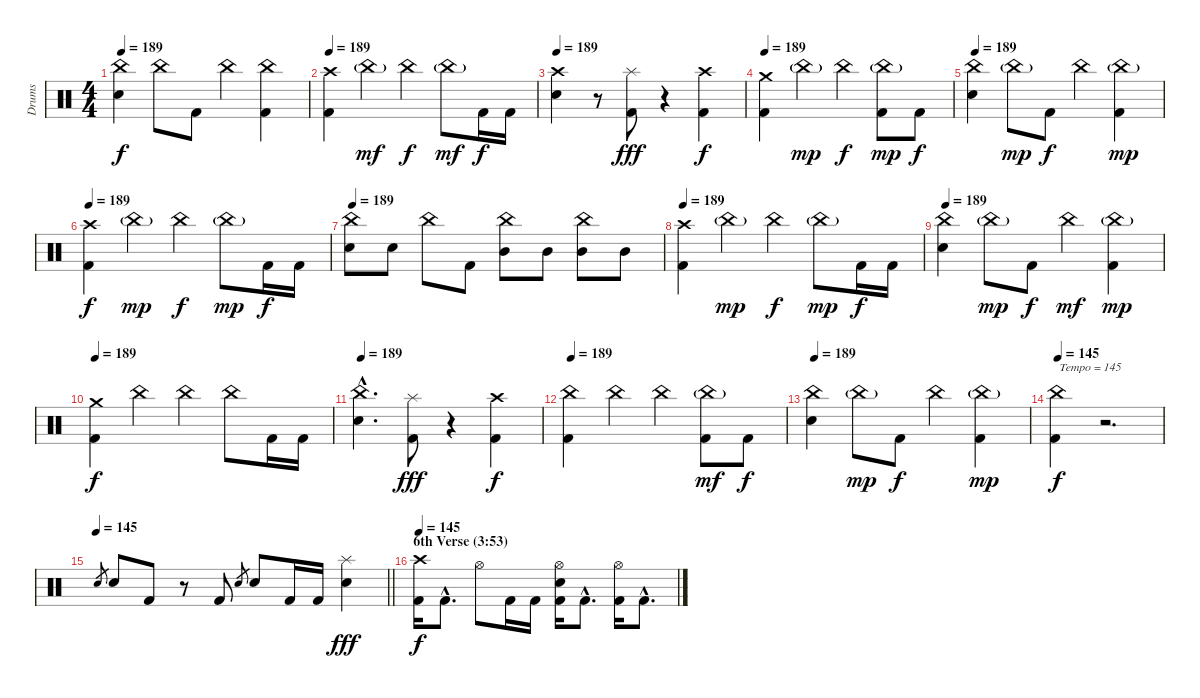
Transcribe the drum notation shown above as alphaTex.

\track ("Drums" "Drums") {instrument percussion}
\staff {score}
\articulation defaults
\ts (4 4)
\tempo 189
\clef neutral
\ks c
("China (hit)" "Snare (hit) 2").4{dy f} "China (hit)".8 "Kick (hit) 2".8 "China (hit)".4 ("China (hit)" "Kick (hit) 2").4 |
\tempo 189
("Crash high (hit)" "Kick (hit) 2").4 "China (hit)"{g}.4{dy mf} "China (hit)".4{dy f} "China (hit)"{g}.8{dy mf} "Kick (hit) 2".16{dy f} "Kick (hit) 2".16 |
\tempo 189
("Crash high (hit)" "Snare (hit) 2").4 r.8 ("Splash (hit)" "Kick (hit) 2").8{dy fff} r.4 ("Crash high (hit)" "Kick (hit) 2").4{dy f} |
\tempo 189
("Crash medium (hit)" "Kick (hit) 2").4 "China (hit)"{g}.4{dy mp} "China (hit)".4{dy f} ("China (hit)"{g} "Kick (hit) 2").8{dy mp} "Kick (hit) 2".8{dy f} |
\tempo 189
("China (hit)" "Snare (hit) 2").4 "China (hit)"{g}.8{dy mp} "Kick (hit) 2".8{dy f} "China (hit)".4 ("China (hit)"{g} "Kick (hit) 2").4{dy mp} |
\tempo 189
("Crash high (hit)" "Kick (hit) 2").4{dy f} "China (hit)"{g}.4{dy mp} "China (hit)".4{dy f} "China (hit)"{g}.8{dy mp} "Kick (hit) 2".16{dy f} "Kick (hit) 2".16 |
\tempo 189
("China (hit)" "Snare (hit) 2").8 "Snare (hit) 2".8 "China (hit)".8 "Kick (hit) 2".8 ("China (hit)" "Mid Tom (hit)").8 "Mid Tom (hit)".8 ("China (hit)" "Mid Tom (hit)").8 "Mid Tom (hit)".8 |
\tempo 189
("Crash high (hit)" "Kick (hit) 2").4 "China (hit)"{g}.4{dy mp} "China (hit)".4{dy f} "China (hit)"{g}.8{dy mp} "Kick (hit) 2".16{dy f} "Kick (hit) 2".16 |
\tempo 189
("China (hit)" "Snare (hit) 2").4 "China (hit)"{g}.8{dy mp} "Kick (hit) 2".8{dy f} "China (hit)".4{dy mf} ("China (hit)"{g} "Kick (hit) 2").4{dy mp} |
\tempo 189
("Crash medium (hit)" "Kick (hit) 2").4{dy f} "China (hit)".4 "China (hit)".4 "China (hit)".8 "Kick (hit) 2".16 "Kick (hit) 2".16 |
\tempo 189
("China (hit)"{hac} "Snare (hit) 2"{hac}).4{d} ("Splash (hit)" "Kick (hit) 2").8{dy fff} r.4 ("Crash high (hit)" "Kick (hit) 2").4{dy f} |
\tempo 189
("China (hit)" "Kick (hit) 2").4 "China (hit)".4 "China (hit)".4 ("China (hit)"{g} "Kick (hit) 2").8{dy mf} "Kick (hit) 2".8{dy f} |
\tempo 189
("China (hit)" "Snare (hit) 2").4 "China (hit)"{g}.8{dy mp} "Kick (hit) 2".8{dy f} "China (hit)".4 ("China (hit)"{g} "Kick (hit) 2").4{dy mp} |
\tempo 145
("China (hit)" "Kick (hit) 2").4{txt "Tempo = 145" dy f} r.2{d} |
\tempo 145
\barLineRight lightlight "Snare (hit) 2".8{gr} "Snare (hit) 2".8 "Kick (hit) 2".8
r.8 "Kick (hit) 2".8 "Snare (hit) 2".8{gr} "Snare (hit) 2".8 "Kick (hit) 2".16 "Kick (hit) 2".16 ("Splash (hit)" "Snare (hit) 2").4{dy fff} |
\section ("" "6th Verse (3:53)")
\tempo 145
("Crash high (hit)" "Kick (hit) 2").16{dy f} "Kick (hit) 2"{hac}.8{d} "Hi-Hat (open)".8 "Kick (hit) 2".16 "Kick (hit) 2".16 ("Hi-Hat (open)" "Snare (hit) 2" "Kick (hit) 2").16 "Kick (hit) 2"{hac}.8{d} ("Hi-Hat (open)" "Kick (hit) 2").16 "Kick (hit) 2"{hac}.8{d}
